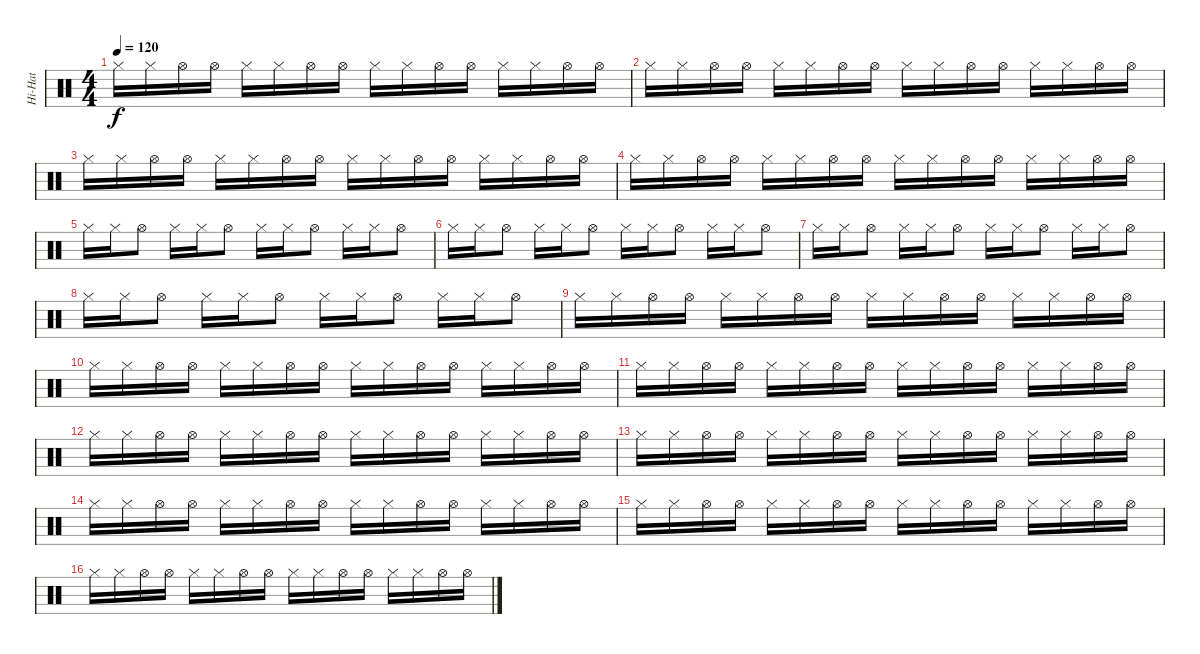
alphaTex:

\track ("Hi-Hat" "Hi-Hat") {instrument percussion}
\staff {score}
\articulation defaults
\ts (4 4)
\tempo 120
\clef neutral
\ks c "Hi-Hat (closed)".16{dy f} "Hi-Hat (closed)".16 "Hi-Hat (open)".16 "Hi-Hat (open)".16 "Hi-Hat (closed)".16 "Hi-Hat (closed)".16 "Hi-Hat (open)".16 "Hi-Hat (open)".16 "Hi-Hat (closed)".16 "Hi-Hat (closed)".16 "Hi-Hat (open)".16 "Hi-Hat (open)".16 "Hi-Hat (closed)".16 "Hi-Hat (closed)".16 "Hi-Hat (open)".16 "Hi-Hat (open)".16
|
"Hi-Hat (closed)".16 "Hi-Hat (closed)".16 "Hi-Hat (open)".16 "Hi-Hat (open)".16 "Hi-Hat (closed)".16 "Hi-Hat (closed)".16 "Hi-Hat (open)".16 "Hi-Hat (open)".16 "Hi-Hat (closed)".16 "Hi-Hat (closed)".16 "Hi-Hat (open)".16 "Hi-Hat (open)".16 "Hi-Hat (closed)".16 "Hi-Hat (closed)".16 "Hi-Hat (open)".16 "Hi-Hat (open)".16 |
"Hi-Hat (closed)".16 "Hi-Hat (closed)".16 "Hi-Hat (open)".16 "Hi-Hat (open)".16 "Hi-Hat (closed)".16 "Hi-Hat (closed)".16 "Hi-Hat (open)".16 "Hi-Hat (open)".16 "Hi-Hat (closed)".16 "Hi-Hat (closed)".16 "Hi-Hat (open)".16 "Hi-Hat (open)".16 "Hi-Hat (closed)".16 "Hi-Hat (closed)".16 "Hi-Hat (open)".16 "Hi-Hat (open)".16 |
"Hi-Hat (closed)".16 "Hi-Hat (closed)".16 "Hi-Hat (open)".16 "Hi-Hat (open)".16 "Hi-Hat (closed)".16 "Hi-Hat (closed)".16 "Hi-Hat (open)".16 "Hi-Hat (open)".16 "Hi-Hat (closed)".16 "Hi-Hat (closed)".16 "Hi-Hat (open)".16 "Hi-Hat (open)".16 "Hi-Hat (closed)".16 "Hi-Hat (closed)".16 "Hi-Hat (open)".16 "Hi-Hat (open)".16 |
"Hi-Hat (closed)".16 "Hi-Hat (closed)".16 "Hi-Hat (open)".8 "Hi-Hat (closed)".16 "Hi-Hat (closed)".16 "Hi-Hat (open)".8 "Hi-Hat (closed)".16 "Hi-Hat (closed)".16 "Hi-Hat (open)".8 "Hi-Hat (closed)".16 "Hi-Hat (closed)".16 "Hi-Hat (open)".8 |
"Hi-Hat (closed)".16 "Hi-Hat (closed)".16 "Hi-Hat (open)".8 "Hi-Hat (closed)".16 "Hi-Hat (closed)".16 "Hi-Hat (open)".8 "Hi-Hat (closed)".16 "Hi-Hat (closed)".16 "Hi-Hat (open)".8 "Hi-Hat (closed)".16 "Hi-Hat (closed)".16 "Hi-Hat (open)".8 |
"Hi-Hat (closed)".16 "Hi-Hat (closed)".16 "Hi-Hat (open)".8 "Hi-Hat (closed)".16 "Hi-Hat (closed)".16 "Hi-Hat (open)".8 "Hi-Hat (closed)".16 "Hi-Hat (closed)".16 "Hi-Hat (open)".8 "Hi-Hat (closed)".16 "Hi-Hat (closed)".16 "Hi-Hat (open)".8 |
"Hi-Hat (closed)".16 "Hi-Hat (closed)".16 "Hi-Hat (open)".8 "Hi-Hat (closed)".16 "Hi-Hat (closed)".16 "Hi-Hat (open)".8 "Hi-Hat (closed)".16 "Hi-Hat (closed)".16 "Hi-Hat (open)".8 "Hi-Hat (closed)".16 "Hi-Hat (closed)".16 "Hi-Hat (open)".8 |
"Hi-Hat (closed)".16 "Hi-Hat (closed)".16 "Hi-Hat (open)".16 "Hi-Hat (open)".16 "Hi-Hat (closed)".16 "Hi-Hat (closed)".16 "Hi-Hat (open)".16 "Hi-Hat (open)".16 "Hi-Hat (closed)".16 "Hi-Hat (closed)".16 "Hi-Hat (open)".16 "Hi-Hat (open)".16 "Hi-Hat (closed)".16 "Hi-Hat (closed)".16 "Hi-Hat (open)".16 "Hi-Hat (open)".16 |
"Hi-Hat (closed)".16 "Hi-Hat (closed)".16 "Hi-Hat (open)".16 "Hi-Hat (open)".16 "Hi-Hat (closed)".16 "Hi-Hat (closed)".16 "Hi-Hat (open)".16 "Hi-Hat (open)".16 "Hi-Hat (closed)".16 "Hi-Hat (closed)".16 "Hi-Hat (open)".16 "Hi-Hat (open)".16 "Hi-Hat (closed)".16 "Hi-Hat (closed)".16 "Hi-Hat (open)".16 "Hi-Hat (open)".16 |
"Hi-Hat (closed)".16 "Hi-Hat (closed)".16 "Hi-Hat (open)".16 "Hi-Hat (open)".16 "Hi-Hat (closed)".16 "Hi-Hat (closed)".16 "Hi-Hat (open)".16 "Hi-Hat (open)".16 "Hi-Hat (closed)".16 "Hi-Hat (closed)".16 "Hi-Hat (open)".16 "Hi-Hat (open)".16 "Hi-Hat (closed)".16 "Hi-Hat (closed)".16 "Hi-Hat (open)".16 "Hi-Hat (open)".16 |
"Hi-Hat (closed)".16 "Hi-Hat (closed)".16 "Hi-Hat (open)".16 "Hi-Hat (open)".16 "Hi-Hat (closed)".16 "Hi-Hat (closed)".16 "Hi-Hat (open)".16 "Hi-Hat (open)".16 "Hi-Hat (closed)".16 "Hi-Hat (closed)".16 "Hi-Hat (open)".16 "Hi-Hat (open)".16 "Hi-Hat (closed)".16 "Hi-Hat (closed)".16 "Hi-Hat (open)".16 "Hi-Hat (open)".16 |
"Hi-Hat (closed)".16 "Hi-Hat (closed)".16 "Hi-Hat (open)".16 "Hi-Hat (open)".16 "Hi-Hat (closed)".16 "Hi-Hat (closed)".16 "Hi-Hat (open)".16 "Hi-Hat (open)".16 "Hi-Hat (closed)".16 "Hi-Hat (closed)".16 "Hi-Hat (open)".16 "Hi-Hat (open)".16 "Hi-Hat (closed)".16 "Hi-Hat (closed)".16 "Hi-Hat (open)".16 "Hi-Hat (open)".16 |
"Hi-Hat (closed)".16 "Hi-Hat (closed)".16 "Hi-Hat (open)".16 "Hi-Hat (open)".16 "Hi-Hat (closed)".16 "Hi-Hat (closed)".16 "Hi-Hat (open)".16 "Hi-Hat (open)".16 "Hi-Hat (closed)".16 "Hi-Hat (closed)".16 "Hi-Hat (open)".16 "Hi-Hat (open)".16 "Hi-Hat (closed)".16 "Hi-Hat (closed)".16 "Hi-Hat (open)".16 "Hi-Hat (open)".16 |
"Hi-Hat (closed)".16 "Hi-Hat (closed)".16 "Hi-Hat (open)".16 "Hi-Hat (open)".16 "Hi-Hat (closed)".16 "Hi-Hat (closed)".16 "Hi-Hat (open)".16 "Hi-Hat (open)".16 "Hi-Hat (closed)".16 "Hi-Hat (closed)".16 "Hi-Hat (open)".16 "Hi-Hat (open)".16 "Hi-Hat (closed)".16 "Hi-Hat (closed)".16 "Hi-Hat (open)".16 "Hi-Hat (open)".16 |
"Hi-Hat (closed)".16 "Hi-Hat (closed)".16 "Hi-Hat (open)".16 "Hi-Hat (open)".16 "Hi-Hat (closed)".16 "Hi-Hat (closed)".16 "Hi-Hat (open)".16 "Hi-Hat (open)".16 "Hi-Hat (closed)".16 "Hi-Hat (closed)".16 "Hi-Hat (open)".16 "Hi-Hat (open)".16 "Hi-Hat (closed)".16 "Hi-Hat (closed)".16 "Hi-Hat (open)".16 "Hi-Hat (open)".16
